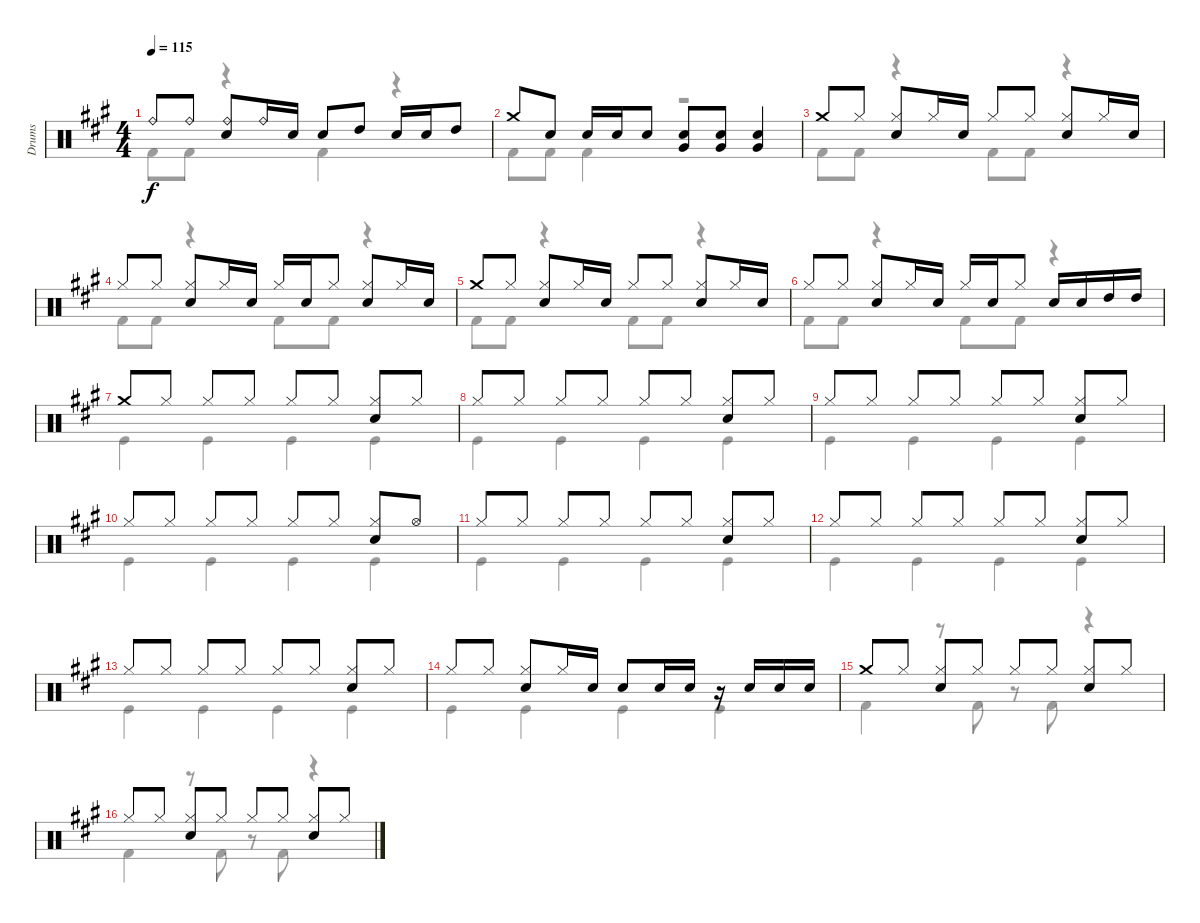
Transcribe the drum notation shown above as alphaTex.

\track ("Drums" "Drums") {instrument percussion}
\staff {score}
\articulation defaults
\voice
\ts (4 4)
\tempo 115
\clef neutral
\ks a "Ride (bell)".8{dy f} "Ride (bell)".8
("Ride (bell)" "Electric Snare (hit)").8 "Ride (bell)".16 "Electric Snare (hit)".16 "Electric Snare (hit)".8 "High Tom (hit)".8 "Electric Snare (hit)".16 "Electric Snare (hit)".16 "High Tom (hit)".8 |
"Crash medium (hit)".8 "Electric Snare (hit)".8 "Electric Snare (hit)".16 "Electric Snare (hit)".16 "Electric Snare (hit)".8 ("Electric Snare (hit)" "Very Low Tom (hit)").8 ("Electric Snare (hit)" "Very Low Tom (hit)").8 ("Electric Snare (hit)" "Very Low Tom (hit)").4 |
"Crash medium (hit)".8{beam Up} "Hi-Hat (closed)".8{beam Up} ("Hi-Hat (closed)" "Electric Snare (hit)").8{beam Up} "Hi-Hat (closed)".16{beam Up} "Electric Snare (hit)".16{beam Up} "Hi-Hat (closed)".8{beam Up} "Hi-Hat (closed)".8{beam Up} ("Hi-Hat (closed)" "Electric Snare (hit)").8{beam Up} "Hi-Hat (closed)".16{beam Up} "Electric Snare (hit)".16{beam Up} |
"Hi-Hat (closed)".8{beam Up} "Hi-Hat (closed)".8{beam Up} ("Hi-Hat (closed)" "Electric Snare (hit)").8{beam Up} "Hi-Hat (closed)".16{beam Up} "Electric Snare (hit)".16{beam Up} "Hi-Hat (closed)".16{beam Up} "Electric Snare (hit)".16{beam Up} "Hi-Hat (closed)".8{beam Up} ("Hi-Hat (closed)" "Electric Snare (hit)").8{beam Up} "Hi-Hat (closed)".16{beam Up} "Electric Snare (hit)".16{beam Up} |
"Crash medium (hit)".8{beam Up} "Hi-Hat (closed)".8{beam Up} ("Hi-Hat (closed)" "Electric Snare (hit)").8{beam Up} "Hi-Hat (closed)".16{beam Up} "Electric Snare (hit)".16{beam Up} "Hi-Hat (closed)".8{beam Up} "Hi-Hat (closed)".8{beam Up} ("Hi-Hat (closed)" "Electric Snare (hit)").8{beam Up} "Hi-Hat (closed)".16{beam Up} "Electric Snare (hit)".16{beam Up} |
"Hi-Hat (closed)".8{beam Up} "Hi-Hat (closed)".8{beam Up} ("Hi-Hat (closed)" "Electric Snare (hit)").8{beam Up} "Hi-Hat (closed)".16{beam Up} "Electric Snare (hit)".16{beam Up} "Hi-Hat (closed)".16{beam Up} "Electric Snare (hit)".16{beam Up} "Hi-Hat (closed)".8{beam Up} "Electric Snare (hit)".16 "Electric Snare (hit)".16 "High Tom (hit)".16 "High Tom (hit)".16 |
"Crash medium (hit)".8 "Hi-Hat (closed)".8 "Hi-Hat (closed)".8 "Hi-Hat (closed)".8 "Hi-Hat (closed)".8 "Hi-Hat (closed)".8 ("Hi-Hat (closed)" "Electric Snare (hit)").8 "Hi-Hat (closed)".8 |
"Hi-Hat (closed)".8 "Hi-Hat (closed)".8 "Hi-Hat (closed)".8 "Hi-Hat (closed)".8 "Hi-Hat (closed)".8 "Hi-Hat (closed)".8 ("Hi-Hat (closed)" "Electric Snare (hit)").8 "Hi-Hat (closed)".8 |
"Hi-Hat (closed)".8 "Hi-Hat (closed)".8 "Hi-Hat (closed)".8 "Hi-Hat (closed)".8 "Hi-Hat (closed)".8 "Hi-Hat (closed)".8 ("Hi-Hat (closed)" "Electric Snare (hit)").8 "Hi-Hat (closed)".8 |
"Hi-Hat (closed)".8 "Hi-Hat (closed)".8 "Hi-Hat (closed)".8 "Hi-Hat (closed)".8 "Hi-Hat (closed)".8 "Hi-Hat (closed)".8 ("Hi-Hat (closed)" "Electric Snare (hit)").8 "Hi-Hat (open)".8 |
"Hi-Hat (closed)".8 "Hi-Hat (closed)".8 "Hi-Hat (closed)".8 "Hi-Hat (closed)".8 "Hi-Hat (closed)".8 "Hi-Hat (closed)".8 ("Hi-Hat (closed)" "Electric Snare (hit)").8 "Hi-Hat (closed)".8 |
"Hi-Hat (closed)".8 "Hi-Hat (closed)".8 "Hi-Hat (closed)".8 "Hi-Hat (closed)".8 "Hi-Hat (closed)".8 "Hi-Hat (closed)".8 ("Hi-Hat (closed)" "Electric Snare (hit)").8 "Hi-Hat (closed)".8 |
"Hi-Hat (closed)".8 "Hi-Hat (closed)".8 "Hi-Hat (closed)".8 "Hi-Hat (closed)".8 "Hi-Hat (closed)".8 "Hi-Hat (closed)".8 ("Hi-Hat (closed)" "Electric Snare (hit)").8 "Hi-Hat (closed)".8 |
"Hi-Hat (closed)".8 "Hi-Hat (closed)".8 ("Hi-Hat (closed)" "Electric Snare (hit)").8 "Hi-Hat (closed)".16 "Electric Snare (hit)".16 "Electric Snare (hit)".8 "Electric Snare (hit)".16 "Electric Snare (hit)".16 r.16 "Electric Snare (hit)".16 "Electric Snare (hit)".16 "Electric Snare (hit)".16 |
"Crash medium (hit)".8 "Hi-Hat (closed)".8 ("Hi-Hat (closed)" "Electric Snare (hit)").8 "Hi-Hat (closed)".8 "Hi-Hat (closed)".8 "Hi-Hat (closed)".8 ("Hi-Hat (closed)" "Electric Snare (hit)").8 "Hi-Hat (closed)".8 |
"Hi-Hat (closed)".8 "Hi-Hat (closed)".8 ("Hi-Hat (closed)" "Electric Snare (hit)").8 "Hi-Hat (closed)".8 "Hi-Hat (closed)".8 "Hi-Hat (closed)".8 ("Hi-Hat (closed)" "Electric Snare (hit)").8 "Hi-Hat (closed)".8
\voice
\clef neutral
\ottava regular
\simile none
\ks a "Kick (hit) 2".8{dy f} "Kick (hit) 2".8
r.4 "Kick (hit) 2".4 r.4 |
"Kick (hit) 2".8 "Kick (hit) 2".8 "Kick (hit) 2".4 r.2 |
"Kick (hit) 2".8 "Kick (hit) 2".8 r.4 "Kick (hit) 2".8 "Kick (hit) 2".8 r.4 |
"Kick (hit) 2".8 "Kick (hit) 2".8 r.4 "Kick (hit) 2".8 "Kick (hit) 2".8 r.4 |
"Kick (hit) 2".8 "Kick (hit) 2".8 r.4 "Kick (hit) 2".8 "Kick (hit) 2".8 r.4 |
"Kick (hit) 2".8 "Kick (hit) 2".8 r.4 "Kick (hit) 2".8 "Kick (hit) 2".8 r.4 |
"Kick (hit)".4 "Kick (hit)".4 "Kick (hit)".4 "Kick (hit)".4 |
"Kick (hit)".4 "Kick (hit)".4 "Kick (hit)".4 "Kick (hit)".4 |
"Kick (hit)".4 "Kick (hit)".4 "Kick (hit)".4 "Kick (hit)".4 |
"Kick (hit)".4 "Kick (hit)".4 "Kick (hit)".4 "Kick (hit)".4 |
"Kick (hit)".4 "Kick (hit)".4 "Kick (hit)".4 "Kick (hit)".4 |
"Kick (hit)".4 "Kick (hit)".4 "Kick (hit)".4 "Kick (hit)".4 |
"Kick (hit)".4 "Kick (hit)".4 "Kick (hit)".4 "Kick (hit)".4 |
"Kick (hit)".4 "Kick (hit)".4 "Kick (hit)".4 "Kick (hit)".4 |
"Kick (hit) 2".4 r.8 "Kick (hit) 2".8 r.8 "Kick (hit) 2".8 r.4 |
"Kick (hit) 2".4 r.8 "Kick (hit) 2".8 r.8 "Kick (hit) 2".8 r.4
